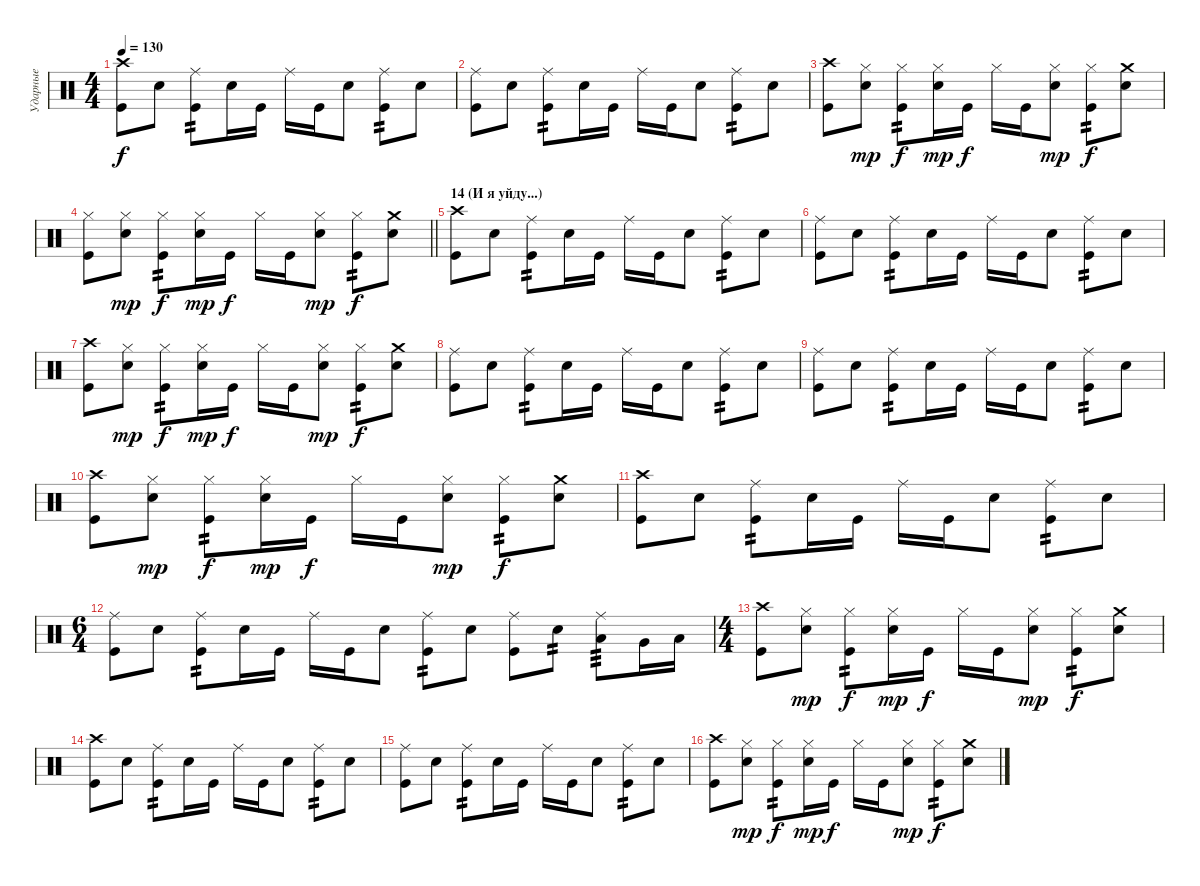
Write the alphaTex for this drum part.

\track ("Ударные" "Ударные") {instrument percussion}
\staff {score}
\articulation defaults
\ts (4 4)
\tempo 130
\clef neutral
\ks c
("Crash high (hit)" "Kick (hit)").8{dy f} "Snare (hit) 2".8 ("Ride (middle)" "Kick (hit)").8{tp 2} "Snare (hit) 2".16 "Kick (hit)".16 "Ride (middle)".16 "Kick (hit)".16 "Snare (hit) 2".8 ("Ride (middle)" "Kick (hit)").8{tp 2} "Snare (hit) 2".8 |
("Ride (middle)" "Kick (hit)").8 "Snare (hit) 2".8 ("Ride (middle)" "Kick (hit)").8{tp 2} "Snare (hit) 2".16 "Kick (hit)".16 "Ride (middle)".16 "Kick (hit)".16 "Snare (hit) 2".8 ("Ride (middle)" "Kick (hit)").8{tp 2} "Snare (hit) 2".8 |
("Crash high (hit)" "Kick (hit)").8 ("Hi-Hat (closed)" "Snare (hit) 2").8{dy mp} ("Hi-Hat (closed)" "Kick (hit)").8{tp 2 dy f} ("Hi-Hat (closed)" "Snare (hit) 2").16{dy mp} "Kick (hit)".16{dy f} "Hi-Hat (closed)".16 "Kick (hit)".16 ("Hi-Hat (closed)" "Snare (hit) 2").8{dy mp} ("Hi-Hat (closed)" "Kick (hit)").8{tp 2 dy f} ("Crash medium (hit)" "Snare (hit) 2").8 |
\barLineRight lightlight
("Hi-Hat (closed)" "Kick (hit)").8 ("Hi-Hat (closed)" "Snare (hit) 2").8{dy mp} ("Hi-Hat (closed)" "Kick (hit)").8{tp 2 dy f} ("Hi-Hat (closed)" "Snare (hit) 2").16{dy mp} "Kick (hit)".16{dy f} "Hi-Hat (closed)".16 "Kick (hit)".16 ("Hi-Hat (closed)" "Snare (hit) 2").8{dy mp} ("Hi-Hat (closed)" "Kick (hit)").8{tp 2 dy f} ("Crash medium (hit)" "Snare (hit) 2").8 |
\section ("" "14 (И я уйду...)")
("Crash high (hit)" "Kick (hit)").8 "Snare (hit) 2".8 ("Ride (middle)" "Kick (hit)").8{tp 2} "Snare (hit) 2".16 "Kick (hit)".16 "Ride (middle)".16 "Kick (hit)".16 "Snare (hit) 2".8 ("Ride (middle)" "Kick (hit)").8{tp 2} "Snare (hit) 2".8 |
("Ride (middle)" "Kick (hit)").8 "Snare (hit) 2".8 ("Ride (middle)" "Kick (hit)").8{tp 2} "Snare (hit) 2".16 "Kick (hit)".16 "Ride (middle)".16 "Kick (hit)".16 "Snare (hit) 2".8 ("Ride (middle)" "Kick (hit)").8{tp 2} "Snare (hit) 2".8 |
("Crash high (hit)" "Kick (hit)").8 ("Hi-Hat (closed)" "Snare (hit) 2").8{dy mp} ("Hi-Hat (closed)" "Kick (hit)").8{tp 2 dy f} ("Hi-Hat (closed)" "Snare (hit) 2").16{dy mp} "Kick (hit)".16{dy f} "Hi-Hat (closed)".16 "Kick (hit)".16 ("Hi-Hat (closed)" "Snare (hit) 2").8{dy mp} ("Hi-Hat (closed)" "Kick (hit)").8{tp 2 dy f} ("Crash medium (hit)" "Snare (hit) 2").8 |
("Ride (middle)" "Kick (hit)").8 "Snare (hit) 2".8 ("Ride (middle)" "Kick (hit)").8{tp 2} "Snare (hit) 2".16 "Kick (hit)".16 "Ride (middle)".16 "Kick (hit)".16 "Snare (hit) 2".8 ("Ride (middle)" "Kick (hit)").8{tp 2} "Snare (hit) 2".8 |
("Ride (middle)" "Kick (hit)").8 "Snare (hit) 2".8 ("Ride (middle)" "Kick (hit)").8{tp 2} "Snare (hit) 2".16 "Kick (hit)".16 "Ride (middle)".16 "Kick (hit)".16 "Snare (hit) 2".8 ("Ride (middle)" "Kick (hit)").8{tp 2} "Snare (hit) 2".8 |
("Crash high (hit)" "Kick (hit)").8 ("Hi-Hat (closed)" "Snare (hit) 2").8{dy mp} ("Hi-Hat (closed)" "Kick (hit)").8{tp 2 dy f} ("Hi-Hat (closed)" "Snare (hit) 2").16{dy mp} "Kick (hit)".16{dy f} "Hi-Hat (closed)".16 "Kick (hit)".16 ("Hi-Hat (closed)" "Snare (hit) 2").8{dy mp} ("Hi-Hat (closed)" "Kick (hit)").8{tp 2 dy f} ("Crash medium (hit)" "Snare (hit) 2").8 |
("Crash high (hit)" "Kick (hit)").8 "Snare (hit) 2".8 ("Ride (middle)" "Kick (hit)").8{tp 2} "Snare (hit) 2".16 "Kick (hit)".16 "Ride (middle)".16 "Kick (hit)".16 "Snare (hit) 2".8 ("Ride (middle)" "Kick (hit)").8{tp 2} "Snare (hit) 2".8 |
\ts (6 4)
("Ride (middle)" "Kick (hit)").8 "Snare (hit) 2".8 ("Ride (middle)" "Kick (hit)").8{tp 2} "Snare (hit) 2".16 "Kick (hit)".16 "Ride (middle)".16 "Kick (hit)".16 "Snare (hit) 2".8 ("Ride (middle)" "Kick (hit)").8{tp 2} "Snare (hit) 2".8 ("Ride (middle)" "Kick (hit)").8 "Snare (hit) 2".8{tp 2} ("Ride (middle)" "Low Tom (hit)").8{tp 3} "Very Low Tom (hit)".16 "Low Floor Tom (hit)".16 |
\ts (4 4)
("Crash high (hit)" "Kick (hit)").8 ("Hi-Hat (closed)" "Snare (hit) 2").8{dy mp} ("Hi-Hat (closed)" "Kick (hit)").8{tp 2 dy f} ("Hi-Hat (closed)" "Snare (hit) 2").16{dy mp} "Kick (hit)".16{dy f} "Hi-Hat (closed)".16 "Kick (hit)".16 ("Hi-Hat (closed)" "Snare (hit) 2").8{dy mp} ("Hi-Hat (closed)" "Kick (hit)").8{tp 2 dy f} ("Crash medium (hit)" "Snare (hit) 2").8 |
("Crash high (hit)" "Kick (hit)").8 "Snare (hit) 2".8 ("Ride (middle)" "Kick (hit)").8{tp 2} "Snare (hit) 2".16 "Kick (hit)".16 "Ride (middle)".16 "Kick (hit)".16 "Snare (hit) 2".8 ("Ride (middle)" "Kick (hit)").8{tp 2} "Snare (hit) 2".8 |
("Ride (middle)" "Kick (hit)").8 "Snare (hit) 2".8 ("Ride (middle)" "Kick (hit)").8{tp 2} "Snare (hit) 2".16 "Kick (hit)".16 "Ride (middle)".16 "Kick (hit)".16 "Snare (hit) 2".8 ("Ride (middle)" "Kick (hit)").8{tp 2} "Snare (hit) 2".8 |
("Crash high (hit)" "Kick (hit)").8 ("Hi-Hat (closed)" "Snare (hit) 2").8{dy mp} ("Hi-Hat (closed)" "Kick (hit)").8{tp 2 dy f} ("Hi-Hat (closed)" "Snare (hit) 2").16{dy mp} "Kick (hit)".16{dy f} "Hi-Hat (closed)".16 "Kick (hit)".16 ("Hi-Hat (closed)" "Snare (hit) 2").8{dy mp} ("Hi-Hat (closed)" "Kick (hit)").8{tp 2 dy f} ("Crash medium (hit)" "Snare (hit) 2").8
